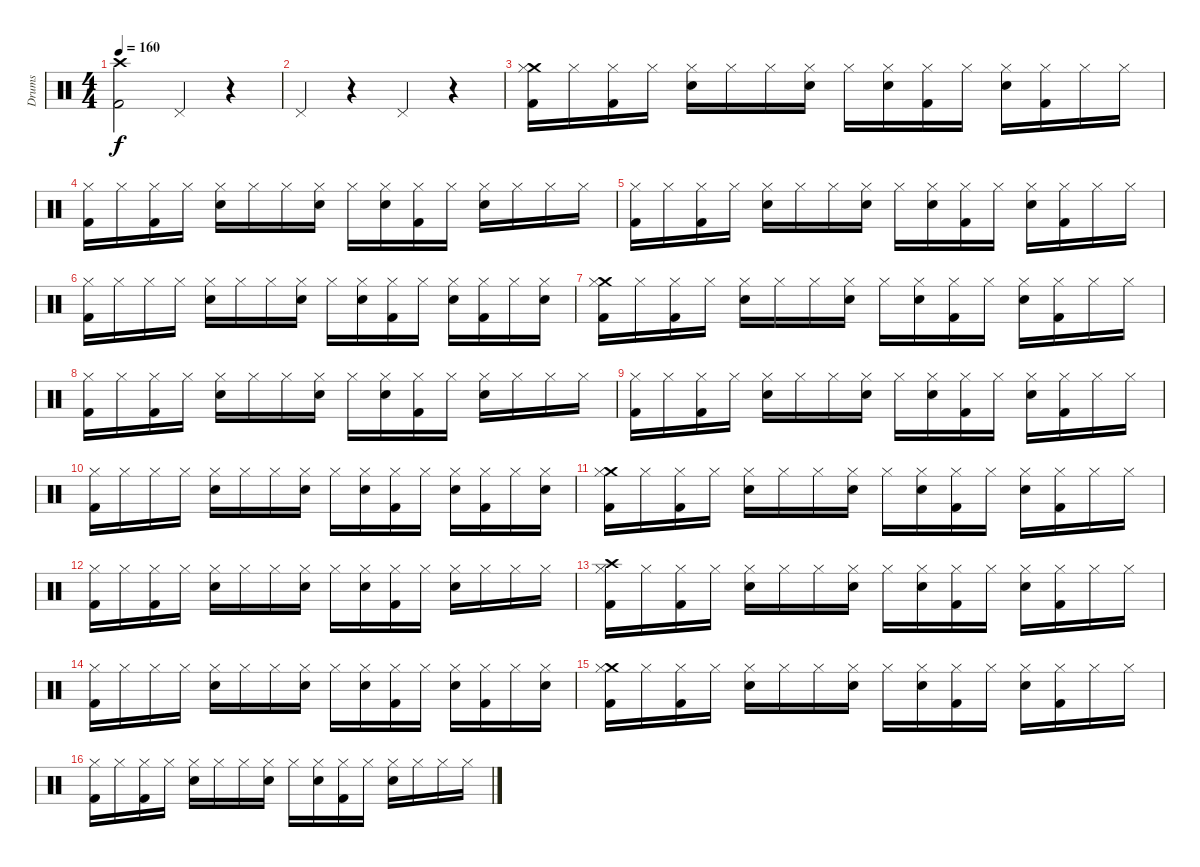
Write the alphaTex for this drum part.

\track ("Drums" "Drums") {instrument percussion}
\staff {score}
\articulation defaults
\ts (4 4)
\tempo 160
\clef neutral
\ks c
("Crash high (hit)" "Kick (hit) 2").2{dy f} "Pedal Hi-Hat (hit)".4 r.4 |
"Pedal Hi-Hat (hit)".4 r.4 "Pedal Hi-Hat (hit)".4 r.4 |
("Crash medium (hit)" "Kick (hit) 2" "Hi-Hat (closed)").16 "Hi-Hat (closed)".16 ("Kick (hit) 2" "Hi-Hat (closed)").16 "Hi-Hat (closed)".16 ("Hi-Hat (closed)" "Electric Snare (hit)").16 "Hi-Hat (closed)".16 "Hi-Hat (closed)".16 ("Electric Snare (hit)" "Hi-Hat (closed)").16 "Hi-Hat (closed)".16 ("Electric Snare (hit)" "Hi-Hat (closed)").16 ("Kick (hit) 2" "Hi-Hat (closed)").16 "Hi-Hat (closed)".16 ("Electric Snare (hit)" "Hi-Hat (closed)").16 ("Kick (hit) 2" "Hi-Hat (closed)").16 "Hi-Hat (closed)".16 "Hi-Hat (closed)".16 |
("Kick (hit) 2" "Hi-Hat (closed)").16 "Hi-Hat (closed)".16 ("Kick (hit) 2" "Hi-Hat (closed)").16 "Hi-Hat (closed)".16 ("Hi-Hat (closed)" "Electric Snare (hit)").16 "Hi-Hat (closed)".16 "Hi-Hat (closed)".16 ("Electric Snare (hit)" "Hi-Hat (closed)").16 "Hi-Hat (closed)".16 ("Electric Snare (hit)" "Hi-Hat (closed)").16 ("Kick (hit) 2" "Hi-Hat (closed)").16 "Hi-Hat (closed)".16 ("Electric Snare (hit)" "Hi-Hat (closed)").16 "Hi-Hat (closed)".16 "Hi-Hat (closed)".16 "Hi-Hat (closed)".16 |
("Kick (hit) 2" "Hi-Hat (closed)").16 "Hi-Hat (closed)".16 ("Kick (hit) 2" "Hi-Hat (closed)").16 "Hi-Hat (closed)".16 ("Hi-Hat (closed)" "Electric Snare (hit)").16 "Hi-Hat (closed)".16 "Hi-Hat (closed)".16 ("Electric Snare (hit)" "Hi-Hat (closed)").16 "Hi-Hat (closed)".16 ("Electric Snare (hit)" "Hi-Hat (closed)").16 ("Kick (hit) 2" "Hi-Hat (closed)").16 "Hi-Hat (closed)".16 ("Electric Snare (hit)" "Hi-Hat (closed)").16 ("Kick (hit) 2" "Hi-Hat (closed)").16 "Hi-Hat (closed)".16 "Hi-Hat (closed)".16 |
("Kick (hit) 2" "Hi-Hat (closed)").16 "Hi-Hat (closed)".16 "Hi-Hat (closed)".16 "Hi-Hat (closed)".16 ("Hi-Hat (closed)" "Electric Snare (hit)").16 "Hi-Hat (closed)".16 "Hi-Hat (closed)".16 ("Electric Snare (hit)" "Hi-Hat (closed)").16 "Hi-Hat (closed)".16 ("Electric Snare (hit)" "Hi-Hat (closed)").16 ("Kick (hit) 2" "Hi-Hat (closed)").16 "Hi-Hat (closed)".16 ("Electric Snare (hit)" "Hi-Hat (closed)").16 ("Kick (hit) 2" "Hi-Hat (closed)").16 "Hi-Hat (closed)".16 ("Electric Snare (hit)" "Hi-Hat (closed)").16 |
("Crash medium (hit)" "Kick (hit) 2" "Hi-Hat (closed)").16 "Hi-Hat (closed)".16 ("Kick (hit) 2" "Hi-Hat (closed)").16 "Hi-Hat (closed)".16 ("Hi-Hat (closed)" "Electric Snare (hit)").16 "Hi-Hat (closed)".16 "Hi-Hat (closed)".16 ("Electric Snare (hit)" "Hi-Hat (closed)").16 "Hi-Hat (closed)".16 ("Electric Snare (hit)" "Hi-Hat (closed)").16 ("Kick (hit) 2" "Hi-Hat (closed)").16 "Hi-Hat (closed)".16 ("Electric Snare (hit)" "Hi-Hat (closed)").16 ("Kick (hit) 2" "Hi-Hat (closed)").16 "Hi-Hat (closed)".16 "Hi-Hat (closed)".16 |
("Kick (hit) 2" "Hi-Hat (closed)").16 "Hi-Hat (closed)".16 ("Kick (hit) 2" "Hi-Hat (closed)").16 "Hi-Hat (closed)".16 ("Hi-Hat (closed)" "Electric Snare (hit)").16 "Hi-Hat (closed)".16 "Hi-Hat (closed)".16 ("Electric Snare (hit)" "Hi-Hat (closed)").16 "Hi-Hat (closed)".16 ("Electric Snare (hit)" "Hi-Hat (closed)").16 ("Kick (hit) 2" "Hi-Hat (closed)").16 "Hi-Hat (closed)".16 ("Electric Snare (hit)" "Hi-Hat (closed)").16 "Hi-Hat (closed)".16 "Hi-Hat (closed)".16 "Hi-Hat (closed)".16 |
("Kick (hit) 2" "Hi-Hat (closed)").16 "Hi-Hat (closed)".16 ("Kick (hit) 2" "Hi-Hat (closed)").16 "Hi-Hat (closed)".16 ("Hi-Hat (closed)" "Electric Snare (hit)").16 "Hi-Hat (closed)".16 "Hi-Hat (closed)".16 ("Electric Snare (hit)" "Hi-Hat (closed)").16 "Hi-Hat (closed)".16 ("Electric Snare (hit)" "Hi-Hat (closed)").16 ("Kick (hit) 2" "Hi-Hat (closed)").16 "Hi-Hat (closed)".16 ("Electric Snare (hit)" "Hi-Hat (closed)").16 ("Kick (hit) 2" "Hi-Hat (closed)").16 "Hi-Hat (closed)".16 "Hi-Hat (closed)".16 |
("Kick (hit) 2" "Hi-Hat (closed)").16 "Hi-Hat (closed)".16 "Hi-Hat (closed)".16 "Hi-Hat (closed)".16 ("Hi-Hat (closed)" "Electric Snare (hit)").16 "Hi-Hat (closed)".16 "Hi-Hat (closed)".16 ("Electric Snare (hit)" "Hi-Hat (closed)").16 "Hi-Hat (closed)".16 ("Electric Snare (hit)" "Hi-Hat (closed)").16 ("Kick (hit) 2" "Hi-Hat (closed)").16 "Hi-Hat (closed)".16 ("Electric Snare (hit)" "Hi-Hat (closed)").16 ("Kick (hit) 2" "Hi-Hat (closed)").16 "Hi-Hat (closed)".16 ("Electric Snare (hit)" "Hi-Hat (closed)").16 |
("Crash medium (hit)" "Kick (hit) 2" "Hi-Hat (closed)").16 "Hi-Hat (closed)".16 ("Kick (hit) 2" "Hi-Hat (closed)").16 "Hi-Hat (closed)".16 ("Hi-Hat (closed)" "Electric Snare (hit)").16 "Hi-Hat (closed)".16 "Hi-Hat (closed)".16 ("Electric Snare (hit)" "Hi-Hat (closed)").16 "Hi-Hat (closed)".16 ("Electric Snare (hit)" "Hi-Hat (closed)").16 ("Kick (hit) 2" "Hi-Hat (closed)").16 "Hi-Hat (closed)".16 ("Electric Snare (hit)" "Hi-Hat (closed)").16 ("Kick (hit) 2" "Hi-Hat (closed)").16 "Hi-Hat (closed)".16 "Hi-Hat (closed)".16 |
("Kick (hit) 2" "Hi-Hat (closed)").16 "Hi-Hat (closed)".16 ("Kick (hit) 2" "Hi-Hat (closed)").16 "Hi-Hat (closed)".16 ("Hi-Hat (closed)" "Electric Snare (hit)").16 "Hi-Hat (closed)".16 "Hi-Hat (closed)".16 ("Electric Snare (hit)" "Hi-Hat (closed)").16 "Hi-Hat (closed)".16 ("Electric Snare (hit)" "Hi-Hat (closed)").16 ("Kick (hit) 2" "Hi-Hat (closed)").16 "Hi-Hat (closed)".16 ("Electric Snare (hit)" "Hi-Hat (closed)").16 "Hi-Hat (closed)".16 "Hi-Hat (closed)".16 "Hi-Hat (closed)".16 |
("Crash high (hit)" "Kick (hit) 2" "Hi-Hat (closed)").16 "Hi-Hat (closed)".16 ("Kick (hit) 2" "Hi-Hat (closed)").16 "Hi-Hat (closed)".16 ("Hi-Hat (closed)" "Electric Snare (hit)").16 "Hi-Hat (closed)".16 "Hi-Hat (closed)".16 ("Electric Snare (hit)" "Hi-Hat (closed)").16 "Hi-Hat (closed)".16 ("Electric Snare (hit)" "Hi-Hat (closed)").16 ("Kick (hit) 2" "Hi-Hat (closed)").16 "Hi-Hat (closed)".16 ("Electric Snare (hit)" "Hi-Hat (closed)").16 ("Kick (hit) 2" "Hi-Hat (closed)").16 "Hi-Hat (closed)".16 "Hi-Hat (closed)".16 |
("Kick (hit) 2" "Hi-Hat (closed)").16 "Hi-Hat (closed)".16 "Hi-Hat (closed)".16 "Hi-Hat (closed)".16 ("Hi-Hat (closed)" "Electric Snare (hit)").16 "Hi-Hat (closed)".16 "Hi-Hat (closed)".16 ("Electric Snare (hit)" "Hi-Hat (closed)").16 "Hi-Hat (closed)".16 ("Electric Snare (hit)" "Hi-Hat (closed)").16 ("Kick (hit) 2" "Hi-Hat (closed)").16 "Hi-Hat (closed)".16 ("Electric Snare (hit)" "Hi-Hat (closed)").16 ("Kick (hit) 2" "Hi-Hat (closed)").16 "Hi-Hat (closed)".16 ("Electric Snare (hit)" "Hi-Hat (closed)").16 |
("Crash medium (hit)" "Kick (hit) 2" "Hi-Hat (closed)").16 "Hi-Hat (closed)".16 ("Kick (hit) 2" "Hi-Hat (closed)").16 "Hi-Hat (closed)".16 ("Hi-Hat (closed)" "Electric Snare (hit)").16 "Hi-Hat (closed)".16 "Hi-Hat (closed)".16 ("Electric Snare (hit)" "Hi-Hat (closed)").16 "Hi-Hat (closed)".16 ("Electric Snare (hit)" "Hi-Hat (closed)").16 ("Kick (hit) 2" "Hi-Hat (closed)").16 "Hi-Hat (closed)".16 ("Electric Snare (hit)" "Hi-Hat (closed)").16 ("Kick (hit) 2" "Hi-Hat (closed)").16 "Hi-Hat (closed)".16 "Hi-Hat (closed)".16 |
("Kick (hit) 2" "Hi-Hat (closed)").16 "Hi-Hat (closed)".16 ("Kick (hit) 2" "Hi-Hat (closed)").16 "Hi-Hat (closed)".16 ("Hi-Hat (closed)" "Electric Snare (hit)").16 "Hi-Hat (closed)".16 "Hi-Hat (closed)".16 ("Electric Snare (hit)" "Hi-Hat (closed)").16 "Hi-Hat (closed)".16 ("Electric Snare (hit)" "Hi-Hat (closed)").16 ("Kick (hit) 2" "Hi-Hat (closed)").16 "Hi-Hat (closed)".16 ("Electric Snare (hit)" "Hi-Hat (closed)").16 "Hi-Hat (closed)".16 "Hi-Hat (closed)".16 "Hi-Hat (closed)".16
